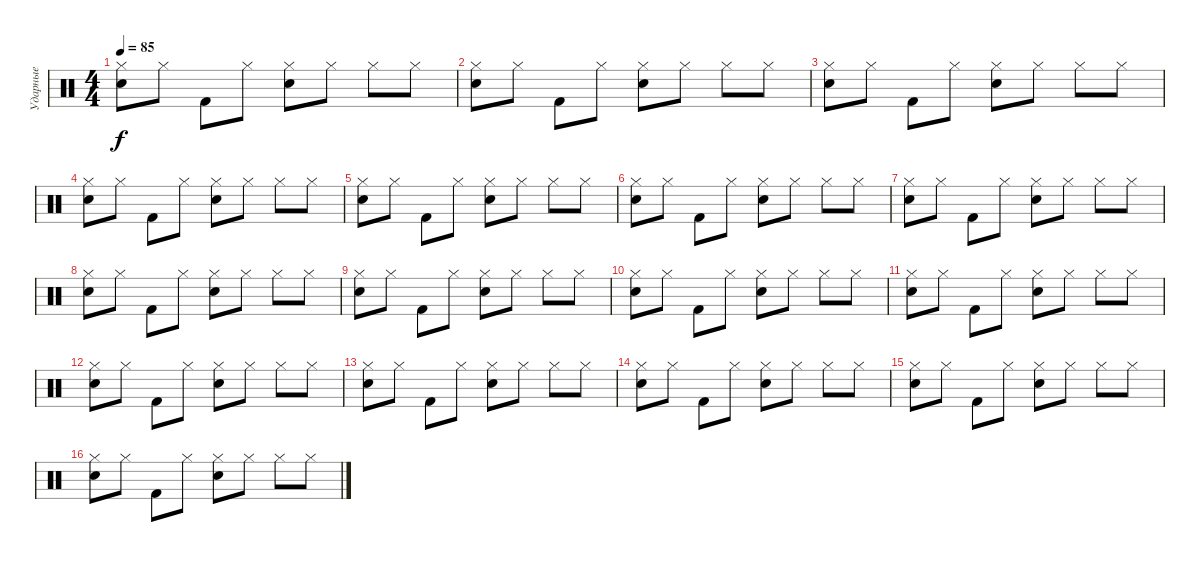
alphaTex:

\track ("Ударные" "Ударные") {instrument percussion}
\staff {score}
\articulation defaults
\ts (4 4)
\tempo 85
\clef neutral
\ks c
("Hi-Hat (closed)" "Snare (hit) 2").8{dy f} "Hi-Hat (closed)".8 "Kick (hit) 2".8 "Hi-Hat (closed)".8 ("Hi-Hat (closed)" "Snare (hit) 2").8 "Hi-Hat (closed)".8 "Hi-Hat (closed)".8 "Hi-Hat (closed)".8 |
("Hi-Hat (closed)" "Snare (hit) 2").8 "Hi-Hat (closed)".8 "Kick (hit) 2".8 "Hi-Hat (closed)".8 ("Hi-Hat (closed)" "Snare (hit) 2").8 "Hi-Hat (closed)".8 "Hi-Hat (closed)".8 "Hi-Hat (closed)".8 |
("Hi-Hat (closed)" "Snare (hit) 2").8 "Hi-Hat (closed)".8 "Kick (hit) 2".8 "Hi-Hat (closed)".8 ("Hi-Hat (closed)" "Snare (hit) 2").8 "Hi-Hat (closed)".8 "Hi-Hat (closed)".8 "Hi-Hat (closed)".8 |
("Hi-Hat (closed)" "Snare (hit) 2").8 "Hi-Hat (closed)".8 "Kick (hit) 2".8 "Hi-Hat (closed)".8 ("Hi-Hat (closed)" "Snare (hit) 2").8 "Hi-Hat (closed)".8 "Hi-Hat (closed)".8 "Hi-Hat (closed)".8 |
("Hi-Hat (closed)" "Snare (hit) 2").8 "Hi-Hat (closed)".8 "Kick (hit) 2".8 "Hi-Hat (closed)".8 ("Hi-Hat (closed)" "Snare (hit) 2").8 "Hi-Hat (closed)".8 "Hi-Hat (closed)".8 "Hi-Hat (closed)".8 |
("Hi-Hat (closed)" "Snare (hit) 2").8 "Hi-Hat (closed)".8 "Kick (hit) 2".8 "Hi-Hat (closed)".8 ("Hi-Hat (closed)" "Snare (hit) 2").8 "Hi-Hat (closed)".8 "Hi-Hat (closed)".8 "Hi-Hat (closed)".8 |
("Hi-Hat (closed)" "Snare (hit) 2").8 "Hi-Hat (closed)".8 "Kick (hit) 2".8 "Hi-Hat (closed)".8 ("Hi-Hat (closed)" "Snare (hit) 2").8 "Hi-Hat (closed)".8 "Hi-Hat (closed)".8 "Hi-Hat (closed)".8 |
("Hi-Hat (closed)" "Snare (hit) 2").8 "Hi-Hat (closed)".8 "Kick (hit) 2".8 "Hi-Hat (closed)".8 ("Hi-Hat (closed)" "Snare (hit) 2").8 "Hi-Hat (closed)".8 "Hi-Hat (closed)".8 "Hi-Hat (closed)".8 |
("Hi-Hat (closed)" "Snare (hit) 2").8 "Hi-Hat (closed)".8 "Kick (hit) 2".8 "Hi-Hat (closed)".8 ("Hi-Hat (closed)" "Snare (hit) 2").8 "Hi-Hat (closed)".8 "Hi-Hat (closed)".8 "Hi-Hat (closed)".8 |
("Hi-Hat (closed)" "Snare (hit) 2").8 "Hi-Hat (closed)".8 "Kick (hit) 2".8 "Hi-Hat (closed)".8 ("Hi-Hat (closed)" "Snare (hit) 2").8 "Hi-Hat (closed)".8 "Hi-Hat (closed)".8 "Hi-Hat (closed)".8 |
("Hi-Hat (closed)" "Snare (hit) 2").8 "Hi-Hat (closed)".8 "Kick (hit) 2".8 "Hi-Hat (closed)".8 ("Hi-Hat (closed)" "Snare (hit) 2").8 "Hi-Hat (closed)".8 "Hi-Hat (closed)".8 "Hi-Hat (closed)".8 |
("Hi-Hat (closed)" "Snare (hit) 2").8 "Hi-Hat (closed)".8 "Kick (hit) 2".8 "Hi-Hat (closed)".8 ("Hi-Hat (closed)" "Snare (hit) 2").8 "Hi-Hat (closed)".8 "Hi-Hat (closed)".8 "Hi-Hat (closed)".8 |
("Hi-Hat (closed)" "Snare (hit) 2").8 "Hi-Hat (closed)".8 "Kick (hit) 2".8 "Hi-Hat (closed)".8 ("Hi-Hat (closed)" "Snare (hit) 2").8 "Hi-Hat (closed)".8 "Hi-Hat (closed)".8 "Hi-Hat (closed)".8 |
("Hi-Hat (closed)" "Snare (hit) 2").8 "Hi-Hat (closed)".8 "Kick (hit) 2".8 "Hi-Hat (closed)".8 ("Hi-Hat (closed)" "Snare (hit) 2").8 "Hi-Hat (closed)".8 "Hi-Hat (closed)".8 "Hi-Hat (closed)".8 |
("Hi-Hat (closed)" "Snare (hit) 2").8 "Hi-Hat (closed)".8 "Kick (hit) 2".8 "Hi-Hat (closed)".8 ("Hi-Hat (closed)" "Snare (hit) 2").8 "Hi-Hat (closed)".8 "Hi-Hat (closed)".8 "Hi-Hat (closed)".8 |
("Hi-Hat (closed)" "Snare (hit) 2").8 "Hi-Hat (closed)".8 "Kick (hit) 2".8 "Hi-Hat (closed)".8 ("Hi-Hat (closed)" "Snare (hit) 2").8 "Hi-Hat (closed)".8 "Hi-Hat (closed)".8 "Hi-Hat (closed)".8
